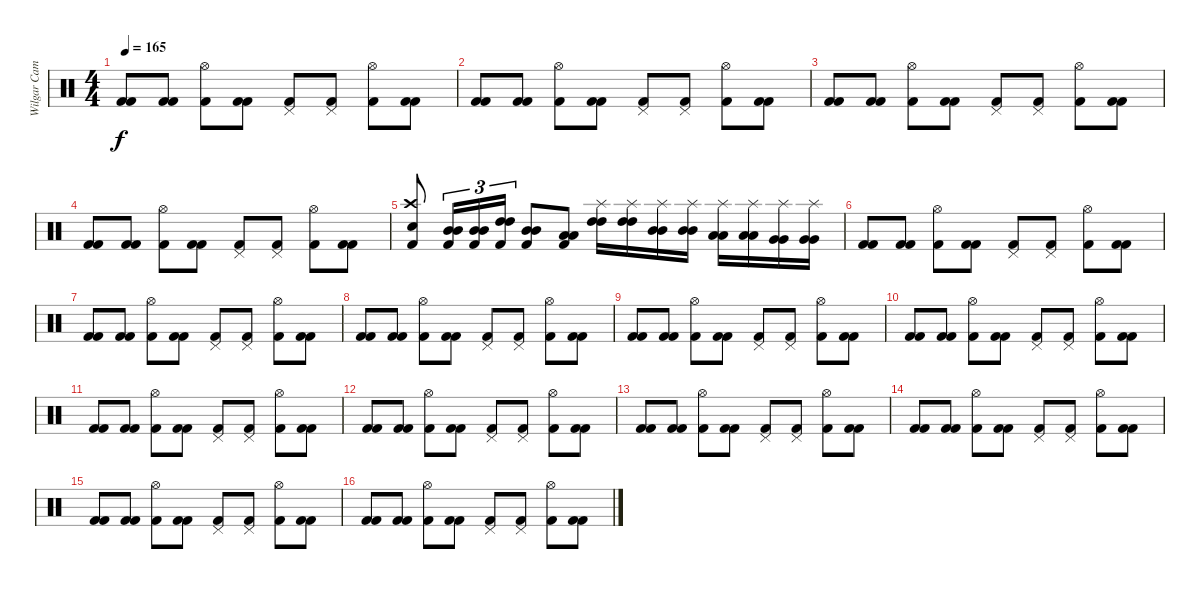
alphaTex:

\track ("Wilgar Campbell" "Wilgar Cam") {instrument percussion}
\staff {score}
\articulation defaults
\ts (4 4)
\tempo 165
\clef neutral
\ks c
("Kick (hit) 2" "Kick (hit) 2").8{dy f} ("Kick (hit) 2" "Kick (hit) 2").8 ("Hi-Hat (open)" "Kick (hit) 2").8 ("Kick (hit) 2" "Kick (hit) 2").8 ("Pedal Hi-Hat (hit)" "Kick (hit) 2").8 ("Pedal Hi-Hat (hit)" "Kick (hit) 2").8 ("Hi-Hat (open)" "Kick (hit) 2").8 ("Kick (hit) 2" "Kick (hit) 2").8 |
("Kick (hit) 2" "Kick (hit) 2").8 ("Kick (hit) 2" "Kick (hit) 2").8 ("Hi-Hat (open)" "Kick (hit) 2").8 ("Kick (hit) 2" "Kick (hit) 2").8 ("Pedal Hi-Hat (hit)" "Kick (hit) 2").8 ("Pedal Hi-Hat (hit)" "Kick (hit) 2").8 ("Hi-Hat (open)" "Kick (hit) 2").8 ("Kick (hit) 2" "Kick (hit) 2").8 |
("Kick (hit) 2" "Kick (hit) 2").8 ("Kick (hit) 2" "Kick (hit) 2").8 ("Hi-Hat (open)" "Kick (hit) 2").8 ("Kick (hit) 2" "Kick (hit) 2").8 ("Pedal Hi-Hat (hit)" "Kick (hit) 2").8 ("Pedal Hi-Hat (hit)" "Kick (hit) 2").8 ("Hi-Hat (open)" "Kick (hit) 2").8 ("Kick (hit) 2" "Kick (hit) 2").8 |
("Kick (hit) 2" "Kick (hit) 2").8 ("Kick (hit) 2" "Kick (hit) 2").8 ("Hi-Hat (open)" "Kick (hit) 2").8 ("Kick (hit) 2" "Kick (hit) 2").8 ("Pedal Hi-Hat (hit)" "Kick (hit) 2").8 ("Pedal Hi-Hat (hit)" "Kick (hit) 2").8 ("Hi-Hat (open)" "Kick (hit) 2").8 ("Kick (hit) 2" "Kick (hit) 2").8 |
("Crash high (hit)" "Snare (hit) 2" "Kick (hit) 2").8 ("Mid Tom (hit)" "Mid Tom (hit)" "Kick (hit) 2").16{tu (3 2)} ("Mid Tom (hit)" "Mid Tom (hit)" "Kick (hit) 2").16{tu (3 2)} ("High Tom (hit)" "High Tom (hit)" "Kick (hit) 2").16{tu (3 2)} ("Mid Tom (hit)" "Mid Tom (hit)" "Kick (hit) 2").8 ("Low Tom (hit)" "Low Tom (hit)" "Kick (hit) 2").8 ("Splash (hit)" "High Tom (hit)" "High Tom (hit)").16 ("Splash (hit)" "High Tom (hit)" "High Tom (hit)").16 ("Splash (hit)" "Mid Tom (hit)" "Mid Tom (hit)").16 ("Splash (hit)" "Mid Tom (hit)" "Mid Tom (hit)").16 ("Splash (hit)" "Low Tom (hit)" "Low Tom (hit)").16 ("Splash (hit)" "Low Tom (hit)" "Low Tom (hit)").16 ("Splash (hit)" "Very Low Tom (hit)" "Very Low Tom (hit)").16 ("Splash (hit)" "Very Low Tom (hit)" "Very Low Tom (hit)").16 |
("Kick (hit) 2" "Kick (hit) 2").8 ("Kick (hit) 2" "Kick (hit) 2").8 ("Hi-Hat (open)" "Kick (hit) 2").8 ("Kick (hit) 2" "Kick (hit) 2").8 ("Pedal Hi-Hat (hit)" "Kick (hit) 2").8 ("Pedal Hi-Hat (hit)" "Kick (hit) 2").8 ("Hi-Hat (open)" "Kick (hit) 2").8 ("Kick (hit) 2" "Kick (hit) 2").8 |
("Kick (hit) 2" "Kick (hit) 2").8 ("Kick (hit) 2" "Kick (hit) 2").8 ("Hi-Hat (open)" "Kick (hit) 2").8 ("Kick (hit) 2" "Kick (hit) 2").8 ("Pedal Hi-Hat (hit)" "Kick (hit) 2").8 ("Pedal Hi-Hat (hit)" "Kick (hit) 2").8 ("Hi-Hat (open)" "Kick (hit) 2").8 ("Kick (hit) 2" "Kick (hit) 2").8 |
("Kick (hit) 2" "Kick (hit) 2").8 ("Kick (hit) 2" "Kick (hit) 2").8 ("Hi-Hat (open)" "Kick (hit) 2").8 ("Kick (hit) 2" "Kick (hit) 2").8 ("Pedal Hi-Hat (hit)" "Kick (hit) 2").8 ("Pedal Hi-Hat (hit)" "Kick (hit) 2").8 ("Hi-Hat (open)" "Kick (hit) 2").8 ("Kick (hit) 2" "Kick (hit) 2").8 |
("Kick (hit) 2" "Kick (hit) 2").8 ("Kick (hit) 2" "Kick (hit) 2").8 ("Hi-Hat (open)" "Kick (hit) 2").8 ("Kick (hit) 2" "Kick (hit) 2").8 ("Pedal Hi-Hat (hit)" "Kick (hit) 2").8 ("Pedal Hi-Hat (hit)" "Kick (hit) 2").8 ("Hi-Hat (open)" "Kick (hit) 2").8 ("Kick (hit) 2" "Kick (hit) 2").8 |
("Kick (hit) 2" "Kick (hit) 2").8 ("Kick (hit) 2" "Kick (hit) 2").8 ("Hi-Hat (open)" "Kick (hit) 2").8 ("Kick (hit) 2" "Kick (hit) 2").8 ("Pedal Hi-Hat (hit)" "Kick (hit) 2").8 ("Pedal Hi-Hat (hit)" "Kick (hit) 2").8 ("Hi-Hat (open)" "Kick (hit) 2").8 ("Kick (hit) 2" "Kick (hit) 2").8 |
("Kick (hit) 2" "Kick (hit) 2").8 ("Kick (hit) 2" "Kick (hit) 2").8 ("Hi-Hat (open)" "Kick (hit) 2").8 ("Kick (hit) 2" "Kick (hit) 2").8 ("Pedal Hi-Hat (hit)" "Kick (hit) 2").8 ("Pedal Hi-Hat (hit)" "Kick (hit) 2").8 ("Hi-Hat (open)" "Kick (hit) 2").8 ("Kick (hit) 2" "Kick (hit) 2").8 |
("Kick (hit) 2" "Kick (hit) 2").8 ("Kick (hit) 2" "Kick (hit) 2").8 ("Hi-Hat (open)" "Kick (hit) 2").8 ("Kick (hit) 2" "Kick (hit) 2").8 ("Pedal Hi-Hat (hit)" "Kick (hit) 2").8 ("Pedal Hi-Hat (hit)" "Kick (hit) 2").8 ("Hi-Hat (open)" "Kick (hit) 2").8 ("Kick (hit) 2" "Kick (hit) 2").8 |
("Kick (hit) 2" "Kick (hit) 2").8 ("Kick (hit) 2" "Kick (hit) 2").8 ("Hi-Hat (open)" "Kick (hit) 2").8 ("Kick (hit) 2" "Kick (hit) 2").8 ("Pedal Hi-Hat (hit)" "Kick (hit) 2").8 ("Pedal Hi-Hat (hit)" "Kick (hit) 2").8 ("Hi-Hat (open)" "Kick (hit) 2").8 ("Kick (hit) 2" "Kick (hit) 2").8 |
("Kick (hit) 2" "Kick (hit) 2").8 ("Kick (hit) 2" "Kick (hit) 2").8 ("Hi-Hat (open)" "Kick (hit) 2").8 ("Kick (hit) 2" "Kick (hit) 2").8 ("Pedal Hi-Hat (hit)" "Kick (hit) 2").8 ("Pedal Hi-Hat (hit)" "Kick (hit) 2").8 ("Hi-Hat (open)" "Kick (hit) 2").8 ("Kick (hit) 2" "Kick (hit) 2").8 |
("Kick (hit) 2" "Kick (hit) 2").8 ("Kick (hit) 2" "Kick (hit) 2").8 ("Hi-Hat (open)" "Kick (hit) 2").8 ("Kick (hit) 2" "Kick (hit) 2").8 ("Pedal Hi-Hat (hit)" "Kick (hit) 2").8 ("Pedal Hi-Hat (hit)" "Kick (hit) 2").8 ("Hi-Hat (open)" "Kick (hit) 2").8 ("Kick (hit) 2" "Kick (hit) 2").8 |
("Kick (hit) 2" "Kick (hit) 2").8 ("Kick (hit) 2" "Kick (hit) 2").8 ("Hi-Hat (open)" "Kick (hit) 2").8 ("Kick (hit) 2" "Kick (hit) 2").8 ("Pedal Hi-Hat (hit)" "Kick (hit) 2").8 ("Pedal Hi-Hat (hit)" "Kick (hit) 2").8 ("Hi-Hat (open)" "Kick (hit) 2").8 ("Kick (hit) 2" "Kick (hit) 2").8
